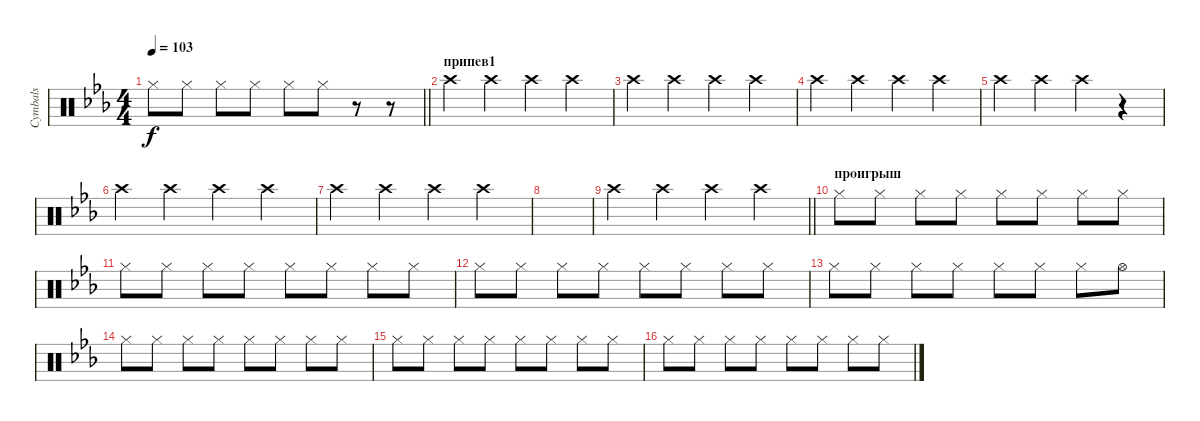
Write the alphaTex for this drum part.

\track ("Cymbals" "Cymbals") {instrument percussion}
\staff {score}
\articulation defaults
\ts (4 4)
\tempo 103
\clef neutral
\barLineRight lightlight
\ks cminor "Hi-Hat (closed)".8{dy f} "Hi-Hat (closed)".8 "Hi-Hat (closed)".8 "Hi-Hat (closed)".8 "Hi-Hat (closed)".8 "Hi-Hat (closed)".8
r.8 r.8 |
\section ("" "припев1")
"Crash high (hit)".4 "Crash high (hit)".4 "Crash high (hit)".4 "Crash high (hit)".4 |
"Crash high (hit)".4 "Crash high (hit)".4 "Crash high (hit)".4 "Crash high (hit)".4 |
"Crash high (hit)".4 "Crash high (hit)".4 "Crash high (hit)".4 "Crash high (hit)".4 |
"Crash high (hit)".4 "Crash high (hit)".4 "Crash high (hit)".4 r.4 |
"Crash high (hit)".4 "Crash high (hit)".4 "Crash high (hit)".4 "Crash high (hit)".4 |
"Crash high (hit)".4 "Crash high (hit)".4 "Crash high (hit)".4 "Crash high (hit)".4 |
|
\barLineRight lightlight "Crash high (hit)".4 "Crash high (hit)".4 "Crash high (hit)".4 "Crash high (hit)".4
|
\section ("" "проигрыш")
"Hi-Hat (closed)".8 "Hi-Hat (closed)".8 "Hi-Hat (closed)".8 "Hi-Hat (closed)".8 "Hi-Hat (closed)".8 "Hi-Hat (closed)".8 "Hi-Hat (closed)".8 "Hi-Hat (closed)".8 |
"Hi-Hat (closed)".8 "Hi-Hat (closed)".8 "Hi-Hat (closed)".8 "Hi-Hat (closed)".8 "Hi-Hat (closed)".8 "Hi-Hat (closed)".8 "Hi-Hat (closed)".8 "Hi-Hat (closed)".8 |
"Hi-Hat (closed)".8 "Hi-Hat (closed)".8 "Hi-Hat (closed)".8 "Hi-Hat (closed)".8 "Hi-Hat (closed)".8 "Hi-Hat (closed)".8 "Hi-Hat (closed)".8 "Hi-Hat (closed)".8 |
"Hi-Hat (closed)".8 "Hi-Hat (closed)".8 "Hi-Hat (closed)".8 "Hi-Hat (closed)".8 "Hi-Hat (closed)".8 "Hi-Hat (closed)".8 "Hi-Hat (closed)".8 "Hi-Hat (open)".8 |
"Hi-Hat (closed)".8 "Hi-Hat (closed)".8 "Hi-Hat (closed)".8 "Hi-Hat (closed)".8 "Hi-Hat (closed)".8 "Hi-Hat (closed)".8 "Hi-Hat (closed)".8 "Hi-Hat (closed)".8 |
"Hi-Hat (closed)".8 "Hi-Hat (closed)".8 "Hi-Hat (closed)".8 "Hi-Hat (closed)".8 "Hi-Hat (closed)".8 "Hi-Hat (closed)".8 "Hi-Hat (closed)".8 "Hi-Hat (closed)".8 |
"Hi-Hat (closed)".8 "Hi-Hat (closed)".8 "Hi-Hat (closed)".8 "Hi-Hat (closed)".8 "Hi-Hat (closed)".8 "Hi-Hat (closed)".8 "Hi-Hat (closed)".8 "Hi-Hat (closed)".8
